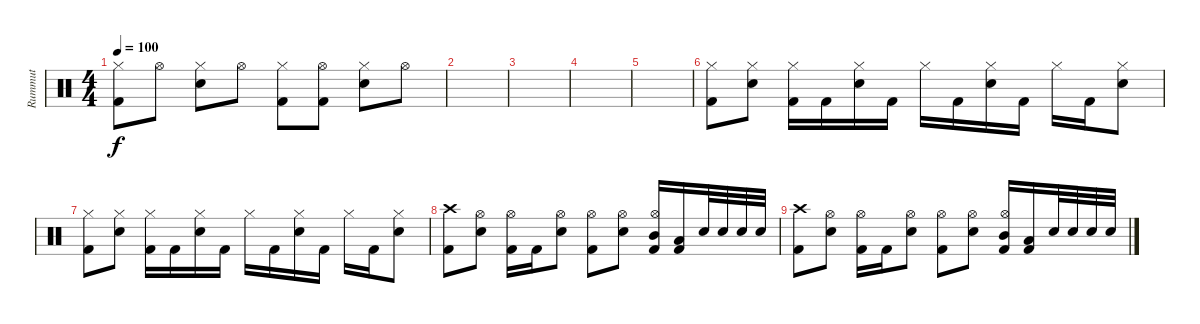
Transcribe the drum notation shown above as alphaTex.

\track ("Rummut" "Rummut") {instrument percussion}
\staff {score}
\articulation defaults
\ts (4 4)
\tempo 100
\clef neutral
\ks c
("Hi-Hat (closed)" "Kick (hit) 2").8{dy f} "Hi-Hat (open)".8 ("Hi-Hat (closed)" "Snare (hit) 2").8 "Hi-Hat (open)".8 ("Hi-Hat (closed)" "Kick (hit) 2").8 ("Hi-Hat (open)" "Kick (hit) 2").8 ("Hi-Hat (closed)" "Snare (hit) 2").8 "Hi-Hat (open)".8 |
|
|
|
|
("Hi-Hat (closed)" "Kick (hit) 2").8 ("Hi-Hat (closed)" "Snare (hit) 2").8 ("Hi-Hat (closed)" "Kick (hit) 2").16 "Kick (hit) 2".16 ("Hi-Hat (closed)" "Snare (hit) 2").16 "Kick (hit) 2".16 "Hi-Hat (closed)".16 "Kick (hit) 2".16 ("Hi-Hat (closed)" "Snare (hit) 2").16 "Kick (hit) 2".16 "Hi-Hat (closed)".16 "Kick (hit) 2".16 ("Hi-Hat (closed)" "Snare (hit) 2").8 |
("Hi-Hat (closed)" "Kick (hit) 2").8 ("Hi-Hat (closed)" "Snare (hit) 2").8 ("Hi-Hat (closed)" "Kick (hit) 2").16 "Kick (hit) 2".16 ("Hi-Hat (closed)" "Snare (hit) 2").16 "Kick (hit) 2".16 "Hi-Hat (closed)".16 "Kick (hit) 2".16 ("Hi-Hat (closed)" "Snare (hit) 2").16 "Kick (hit) 2".16 "Hi-Hat (closed)".16 "Kick (hit) 2".16 ("Hi-Hat (closed)" "Snare (hit) 2").8 |
("Crash high (hit)" "Kick (hit) 2").8 ("Hi-Hat (open)" "Snare (hit) 2").8 ("Hi-Hat (open)" "Kick (hit) 2").16 "Kick (hit) 2".16 ("Hi-Hat (open)" "Snare (hit) 2").8 ("Hi-Hat (open)" "Kick (hit) 2").8 ("Hi-Hat (open)" "Snare (hit) 2").8 ("Hi-Hat (open)" "Mid Tom (hit)" "Kick (hit) 2").16 ("Low Tom (hit)" "Kick (hit) 2").16 "Snare (hit) 2".32 "Snare (hit) 2".32 "Snare (hit) 2".32 "Snare (hit) 2".32 |
("Crash high (hit)" "Kick (hit) 2").8 ("Hi-Hat (open)" "Snare (hit) 2").8 ("Hi-Hat (open)" "Kick (hit) 2").16 "Kick (hit) 2".16 ("Hi-Hat (open)" "Snare (hit) 2").8 ("Hi-Hat (open)" "Kick (hit) 2").8 ("Hi-Hat (open)" "Snare (hit) 2").8 ("Hi-Hat (open)" "Mid Tom (hit)" "Kick (hit) 2").16 ("Low Tom (hit)" "Kick (hit) 2").16 "Snare (hit) 2".32 "Snare (hit) 2".32 "Snare (hit) 2".32 "Snare (hit) 2".32
